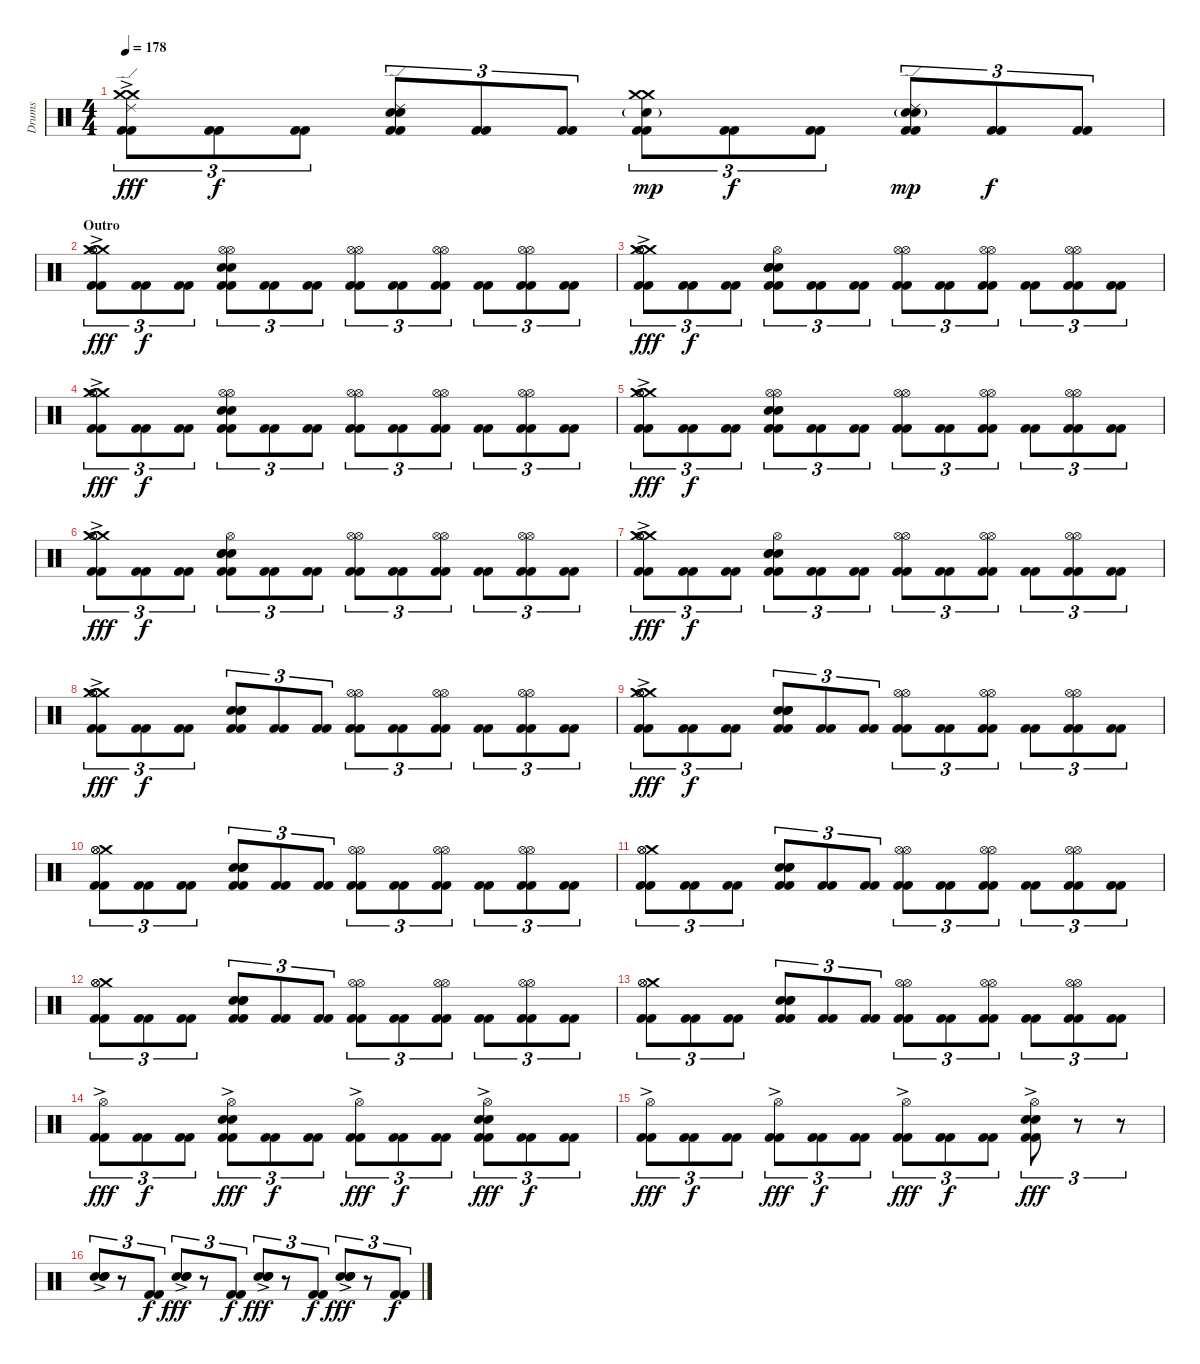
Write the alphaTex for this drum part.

\track ("Drums" "Drums") {instrument percussion}
\staff {score}
\articulation defaults
\ts (4 4)
\tempo 178
\clef neutral
\ks c
("Crash medium (hit)"{ac} "Crash medium (hit)"{ac} "Ride (edge) 2" "Kick (hit) 2" "Kick (hit) 2").8{tu (3 2) dy fff} ("Kick (hit) 2" "Kick (hit) 2").8{tu (3 2) dy f} ("Kick (hit) 2" "Kick (hit) 2").8{tu (3 2)} ("Ride (edge) 2" "Electric Snare (hit)" "Snare (hit) 2" "Kick (hit) 2" "Kick (hit) 2").8{tu (3 2)} ("Kick (hit) 2" "Kick (hit) 2").8{tu (3 2)} ("Kick (hit) 2" "Kick (hit) 2").8{tu (3 2)} ("Crash medium (hit)" "Crash medium (hit)" "Snare (hit) 2"{g} "Kick (hit) 2" "Kick (hit) 2").8{tu (3 2) dy mp} ("Kick (hit) 2" "Kick (hit) 2").8{tu (3 2) dy f} ("Kick (hit) 2" "Kick (hit) 2").8{tu (3 2)} ("Electric Snare (hit)" "Ride (edge) 2" "Snare (hit) 2"{g} "Kick (hit) 2" "Kick (hit) 2").8{tu (3 2) dy mp} ("Kick (hit) 2" "Kick (hit) 2").8{tu (3 2) dy f} ("Kick (hit) 2" "Kick (hit) 2").8{tu (3 2)} |
\section ("" "Outro")
("Crash medium (hit)"{ac} "Crash medium (hit)"{ac} "Hi-Hat (open)" "Hi-Hat (open)" "Kick (hit) 2" "Kick (hit) 2").8{tu (3 2) dy fff} ("Kick (hit) 2" "Kick (hit) 2").8{tu (3 2) dy f} ("Kick (hit) 2" "Kick (hit) 2").8{tu (3 2)} ("Electric Snare (hit)" "Hi-Hat (open)" "Hi-Hat (open)" "Electric Snare (hit)" "Kick (hit) 2" "Kick (hit) 2").8{tu (3 2)} ("Kick (hit) 2" "Kick (hit) 2").8{tu (3 2)} ("Kick (hit) 2" "Kick (hit) 2").8{tu (3 2)} ("Hi-Hat (open)"{pm} "Hi-Hat (open)"{pm} "Kick (hit) 2" "Kick (hit) 2").8{tu (3 2)} ("Kick (hit) 2" "Kick (hit) 2").8{tu (3 2)} ("Hi-Hat (open)"{pm} "Hi-Hat (open)"{pm} "Kick (hit) 2" "Kick (hit) 2").8{tu (3 2)} ("Kick (hit) 2" "Kick (hit) 2").8{tu (3 2)} ("Hi-Hat (open)"{pm} "Hi-Hat (open)"{pm} "Kick (hit) 2" "Kick (hit) 2").8{tu (3 2)} ("Kick (hit) 2" "Kick (hit) 2").8{tu (3 2)} |
("Crash medium (hit)"{ac} "Crash medium (hit)"{ac} "Hi-Hat (open)" "Hi-Hat (open)" "Kick (hit) 2" "Kick (hit) 2").8{tu (3 2) dy fff} ("Kick (hit) 2" "Kick (hit) 2").8{tu (3 2) dy f} ("Kick (hit) 2" "Kick (hit) 2").8{tu (3 2)} ("Electric Snare (hit)" "Hi-Hat (open)" "Electric Snare (hit)" "Snare (hit) 2" "Kick (hit) 2" "Kick (hit) 2").8{tu (3 2)} ("Kick (hit) 2" "Kick (hit) 2").8{tu (3 2)} ("Kick (hit) 2" "Kick (hit) 2").8{tu (3 2)} ("Hi-Hat (open)"{pm} "Hi-Hat (open)"{pm} "Kick (hit) 2" "Kick (hit) 2").8{tu (3 2)} ("Kick (hit) 2" "Kick (hit) 2").8{tu (3 2)} ("Hi-Hat (open)"{pm} "Hi-Hat (open)"{pm} "Kick (hit) 2" "Kick (hit) 2").8{tu (3 2)} ("Kick (hit) 2" "Kick (hit) 2").8{tu (3 2)} ("Hi-Hat (open)"{pm} "Hi-Hat (open)"{pm} "Kick (hit) 2" "Kick (hit) 2").8{tu (3 2)} ("Kick (hit) 2" "Kick (hit) 2").8{tu (3 2)} |
("Crash medium (hit)"{ac} "Crash medium (hit)"{ac} "Hi-Hat (open)" "Hi-Hat (open)" "Kick (hit) 2" "Kick (hit) 2").8{tu (3 2) dy fff} ("Kick (hit) 2" "Kick (hit) 2").8{tu (3 2) dy f} ("Kick (hit) 2" "Kick (hit) 2").8{tu (3 2)} ("Electric Snare (hit)" "Hi-Hat (open)" "Hi-Hat (open)" "Electric Snare (hit)" "Kick (hit) 2" "Kick (hit) 2").8{tu (3 2)} ("Kick (hit) 2" "Kick (hit) 2").8{tu (3 2)} ("Kick (hit) 2" "Kick (hit) 2").8{tu (3 2)} ("Hi-Hat (open)"{pm} "Hi-Hat (open)"{pm} "Kick (hit) 2" "Kick (hit) 2").8{tu (3 2)} ("Kick (hit) 2" "Kick (hit) 2").8{tu (3 2)} ("Hi-Hat (open)"{pm} "Hi-Hat (open)"{pm} "Kick (hit) 2" "Kick (hit) 2").8{tu (3 2)} ("Kick (hit) 2" "Kick (hit) 2").8{tu (3 2)} ("Hi-Hat (open)"{pm} "Hi-Hat (open)"{pm} "Kick (hit) 2" "Kick (hit) 2").8{tu (3 2)} ("Kick (hit) 2" "Kick (hit) 2").8{tu (3 2)} |
("Crash medium (hit)"{ac} "Crash medium (hit)"{ac} "Hi-Hat (open)" "Hi-Hat (open)" "Kick (hit) 2" "Kick (hit) 2").8{tu (3 2) dy fff} ("Kick (hit) 2" "Kick (hit) 2").8{tu (3 2) dy f} ("Kick (hit) 2" "Kick (hit) 2").8{tu (3 2)} ("Electric Snare (hit)" "Hi-Hat (open)" "Hi-Hat (open)" "Electric Snare (hit)" "Kick (hit) 2" "Kick (hit) 2").8{tu (3 2)} ("Kick (hit) 2" "Kick (hit) 2").8{tu (3 2)} ("Kick (hit) 2" "Kick (hit) 2").8{tu (3 2)} ("Hi-Hat (open)"{pm} "Hi-Hat (open)"{pm} "Kick (hit) 2" "Kick (hit) 2").8{tu (3 2)} ("Kick (hit) 2" "Kick (hit) 2").8{tu (3 2)} ("Hi-Hat (open)"{pm} "Hi-Hat (open)"{pm} "Kick (hit) 2" "Kick (hit) 2").8{tu (3 2)} ("Kick (hit) 2" "Kick (hit) 2").8{tu (3 2)} ("Hi-Hat (open)"{pm} "Hi-Hat (open)"{pm} "Kick (hit) 2" "Kick (hit) 2").8{tu (3 2)} ("Kick (hit) 2" "Kick (hit) 2").8{tu (3 2)} |
("Crash medium (hit)"{ac} "Crash medium (hit)"{ac} "Hi-Hat (open)" "Hi-Hat (open)" "Kick (hit) 2" "Kick (hit) 2").8{tu (3 2) dy fff} ("Kick (hit) 2" "Kick (hit) 2").8{tu (3 2) dy f} ("Kick (hit) 2" "Kick (hit) 2").8{tu (3 2)} ("Electric Snare (hit)" "Hi-Hat (open)" "Electric Snare (hit)" "Snare (hit) 2" "Kick (hit) 2" "Kick (hit) 2").8{tu (3 2)} ("Kick (hit) 2" "Kick (hit) 2").8{tu (3 2)} ("Kick (hit) 2" "Kick (hit) 2").8{tu (3 2)} ("Hi-Hat (open)"{pm} "Hi-Hat (open)"{pm} "Kick (hit) 2" "Kick (hit) 2").8{tu (3 2)} ("Kick (hit) 2" "Kick (hit) 2").8{tu (3 2)} ("Hi-Hat (open)"{pm} "Hi-Hat (open)"{pm} "Kick (hit) 2" "Kick (hit) 2").8{tu (3 2)} ("Kick (hit) 2" "Kick (hit) 2").8{tu (3 2)} ("Hi-Hat (open)"{pm} "Hi-Hat (open)"{pm} "Kick (hit) 2" "Kick (hit) 2").8{tu (3 2)} ("Kick (hit) 2" "Kick (hit) 2").8{tu (3 2)} |
("Crash medium (hit)"{ac} "Crash medium (hit)"{ac} "Hi-Hat (open)" "Hi-Hat (open)" "Kick (hit) 2" "Kick (hit) 2").8{tu (3 2) dy fff} ("Kick (hit) 2" "Kick (hit) 2").8{tu (3 2) dy f} ("Kick (hit) 2" "Kick (hit) 2").8{tu (3 2)} ("Electric Snare (hit)" "Hi-Hat (open)" "Electric Snare (hit)" "Snare (hit) 2" "Kick (hit) 2" "Kick (hit) 2").8{tu (3 2)} ("Kick (hit) 2" "Kick (hit) 2").8{tu (3 2)} ("Kick (hit) 2" "Kick (hit) 2").8{tu (3 2)} ("Hi-Hat (open)"{pm} "Hi-Hat (open)"{pm} "Kick (hit) 2" "Kick (hit) 2").8{tu (3 2)} ("Kick (hit) 2" "Kick (hit) 2").8{tu (3 2)} ("Hi-Hat (open)"{pm} "Hi-Hat (open)"{pm} "Kick (hit) 2" "Kick (hit) 2").8{tu (3 2)} ("Kick (hit) 2" "Kick (hit) 2").8{tu (3 2)} ("Hi-Hat (open)"{pm} "Hi-Hat (open)"{pm} "Kick (hit) 2" "Kick (hit) 2").8{tu (3 2)} ("Kick (hit) 2" "Kick (hit) 2").8{tu (3 2)} |
("Crash medium (hit)"{ac} "Crash medium (hit)"{ac} "Hi-Hat (open)" "Hi-Hat (open)" "Kick (hit) 2" "Kick (hit) 2").8{tu (3 2) dy fff} ("Kick (hit) 2" "Kick (hit) 2").8{tu (3 2) dy f} ("Kick (hit) 2" "Kick (hit) 2").8{tu (3 2)} ("Electric Snare (hit)" "Electric Snare (hit)" "Snare (hit) 2" "Kick (hit) 2" "Kick (hit) 2").8{tu (3 2)} ("Kick (hit) 2" "Kick (hit) 2").8{tu (3 2)} ("Kick (hit) 2" "Kick (hit) 2").8{tu (3 2)} ("Hi-Hat (open)"{pm} "Hi-Hat (open)"{pm} "Kick (hit) 2" "Kick (hit) 2").8{tu (3 2)} ("Kick (hit) 2" "Kick (hit) 2").8{tu (3 2)} ("Hi-Hat (open)"{pm} "Hi-Hat (open)"{pm} "Kick (hit) 2" "Kick (hit) 2").8{tu (3 2)} ("Kick (hit) 2" "Kick (hit) 2").8{tu (3 2)} ("Hi-Hat (open)"{pm} "Hi-Hat (open)"{pm} "Kick (hit) 2" "Kick (hit) 2").8{tu (3 2)} ("Kick (hit) 2" "Kick (hit) 2").8{tu (3 2)} |
("Crash medium (hit)"{ac} "Crash medium (hit)"{ac} "Hi-Hat (open)" "Hi-Hat (open)" "Kick (hit) 2" "Kick (hit) 2").8{tu (3 2) dy fff} ("Kick (hit) 2" "Kick (hit) 2").8{tu (3 2) dy f} ("Kick (hit) 2" "Kick (hit) 2").8{tu (3 2)} ("Electric Snare (hit)" "Electric Snare (hit)" "Snare (hit) 2" "Kick (hit) 2" "Kick (hit) 2").8{tu (3 2)} ("Kick (hit) 2" "Kick (hit) 2").8{tu (3 2)} ("Kick (hit) 2" "Kick (hit) 2").8{tu (3 2)} ("Hi-Hat (open)"{pm} "Hi-Hat (open)"{pm} "Kick (hit) 2" "Kick (hit) 2").8{tu (3 2)} ("Kick (hit) 2" "Kick (hit) 2").8{tu (3 2)} ("Hi-Hat (open)"{pm} "Hi-Hat (open)"{pm} "Kick (hit) 2" "Kick (hit) 2").8{tu (3 2)} ("Kick (hit) 2" "Kick (hit) 2").8{tu (3 2)} ("Hi-Hat (open)"{pm} "Hi-Hat (open)"{pm} "Kick (hit) 2" "Kick (hit) 2").8{tu (3 2)} ("Kick (hit) 2" "Kick (hit) 2").8{tu (3 2)} |
("Crash medium (hit)" "Hi-Hat (open)" "Hi-Hat (open)" "Kick (hit) 2" "Kick (hit) 2").8{tu (3 2)} ("Kick (hit) 2" "Kick (hit) 2").8{tu (3 2)} ("Kick (hit) 2" "Kick (hit) 2").8{tu (3 2)} ("Electric Snare (hit)" "Electric Snare (hit)" "Snare (hit) 2" "Kick (hit) 2" "Kick (hit) 2").8{tu (3 2)} ("Kick (hit) 2" "Kick (hit) 2").8{tu (3 2)} ("Kick (hit) 2" "Kick (hit) 2").8{tu (3 2)} ("Hi-Hat (open)"{pm} "Hi-Hat (open)"{pm} "Kick (hit) 2" "Kick (hit) 2").8{tu (3 2)} ("Kick (hit) 2" "Kick (hit) 2").8{tu (3 2)} ("Hi-Hat (open)"{pm} "Hi-Hat (open)"{pm} "Kick (hit) 2" "Kick (hit) 2").8{tu (3 2)} ("Kick (hit) 2" "Kick (hit) 2").8{tu (3 2)} ("Hi-Hat (open)"{pm} "Hi-Hat (open)"{pm} "Kick (hit) 2" "Kick (hit) 2").8{tu (3 2)} ("Kick (hit) 2" "Kick (hit) 2").8{tu (3 2)} |
("Crash medium (hit)" "Hi-Hat (open)" "Hi-Hat (open)" "Kick (hit) 2" "Kick (hit) 2").8{tu (3 2)} ("Kick (hit) 2" "Kick (hit) 2").8{tu (3 2)} ("Kick (hit) 2" "Kick (hit) 2").8{tu (3 2)} ("Electric Snare (hit)" "Electric Snare (hit)" "Snare (hit) 2" "Kick (hit) 2" "Kick (hit) 2").8{tu (3 2)} ("Kick (hit) 2" "Kick (hit) 2").8{tu (3 2)} ("Kick (hit) 2" "Kick (hit) 2").8{tu (3 2)} ("Hi-Hat (open)"{pm} "Hi-Hat (open)"{pm} "Kick (hit) 2" "Kick (hit) 2").8{tu (3 2)} ("Kick (hit) 2" "Kick (hit) 2").8{tu (3 2)} ("Hi-Hat (open)"{pm} "Hi-Hat (open)"{pm} "Kick (hit) 2" "Kick (hit) 2").8{tu (3 2)} ("Kick (hit) 2" "Kick (hit) 2").8{tu (3 2)} ("Hi-Hat (open)"{pm} "Hi-Hat (open)"{pm} "Kick (hit) 2" "Kick (hit) 2").8{tu (3 2)} ("Kick (hit) 2" "Kick (hit) 2").8{tu (3 2)} |
("Crash medium (hit)" "Hi-Hat (open)" "Hi-Hat (open)" "Kick (hit) 2" "Kick (hit) 2").8{tu (3 2)} ("Kick (hit) 2" "Kick (hit) 2").8{tu (3 2)} ("Kick (hit) 2" "Kick (hit) 2").8{tu (3 2)} ("Electric Snare (hit)" "Electric Snare (hit)" "Snare (hit) 2" "Kick (hit) 2" "Kick (hit) 2").8{tu (3 2)} ("Kick (hit) 2" "Kick (hit) 2").8{tu (3 2)} ("Kick (hit) 2" "Kick (hit) 2").8{tu (3 2)} ("Hi-Hat (open)"{pm} "Hi-Hat (open)"{pm} "Kick (hit) 2" "Kick (hit) 2").8{tu (3 2)} ("Kick (hit) 2" "Kick (hit) 2").8{tu (3 2)} ("Hi-Hat (open)"{pm} "Hi-Hat (open)"{pm} "Kick (hit) 2" "Kick (hit) 2").8{tu (3 2)} ("Kick (hit) 2" "Kick (hit) 2").8{tu (3 2)} ("Hi-Hat (open)"{pm} "Hi-Hat (open)"{pm} "Kick (hit) 2" "Kick (hit) 2").8{tu (3 2)} ("Kick (hit) 2" "Kick (hit) 2").8{tu (3 2)} |
("Crash medium (hit)" "Hi-Hat (open)" "Hi-Hat (open)" "Kick (hit) 2" "Kick (hit) 2").8{tu (3 2)} ("Kick (hit) 2" "Kick (hit) 2").8{tu (3 2)} ("Kick (hit) 2" "Kick (hit) 2").8{tu (3 2)} ("Electric Snare (hit)" "Electric Snare (hit)" "Snare (hit) 2" "Kick (hit) 2" "Kick (hit) 2").8{tu (3 2)} ("Kick (hit) 2" "Kick (hit) 2").8{tu (3 2)} ("Kick (hit) 2" "Kick (hit) 2").8{tu (3 2)} ("Hi-Hat (open)"{pm} "Hi-Hat (open)"{pm} "Kick (hit) 2" "Kick (hit) 2").8{tu (3 2)} ("Kick (hit) 2" "Kick (hit) 2").8{tu (3 2)} ("Hi-Hat (open)"{pm} "Hi-Hat (open)"{pm} "Kick (hit) 2" "Kick (hit) 2").8{tu (3 2)} ("Kick (hit) 2" "Kick (hit) 2").8{tu (3 2)} ("Hi-Hat (open)"{pm} "Hi-Hat (open)"{pm} "Kick (hit) 2" "Kick (hit) 2").8{tu (3 2)} ("Kick (hit) 2" "Kick (hit) 2").8{tu (3 2)} |
("Hi-Hat (open)"{ac} "Kick (hit) 2" "Kick (hit) 2").8{tu (3 2) dy fff} ("Kick (hit) 2" "Kick (hit) 2").8{tu (3 2) dy f} ("Kick (hit) 2" "Kick (hit) 2").8{tu (3 2)} ("Snare (hit) 2" "Electric Snare (hit)" "Hi-Hat (open)"{ac} "Kick (hit) 2" "Kick (hit) 2").8{tu (3 2) dy fff} ("Kick (hit) 2" "Kick (hit) 2").8{tu (3 2) dy f} ("Kick (hit) 2" "Kick (hit) 2").8{tu (3 2)} ("Hi-Hat (open)"{ac} "Kick (hit) 2" "Kick (hit) 2").8{tu (3 2) dy fff} ("Kick (hit) 2" "Kick (hit) 2").8{tu (3 2) dy f} ("Kick (hit) 2" "Kick (hit) 2").8{tu (3 2)} ("Snare (hit) 2" "Electric Snare (hit)" "Hi-Hat (open)"{ac} "Kick (hit) 2" "Kick (hit) 2").8{tu (3 2) dy fff} ("Kick (hit) 2" "Kick (hit) 2").8{tu (3 2) dy f} ("Kick (hit) 2" "Kick (hit) 2").8{tu (3 2)} |
("Hi-Hat (open)"{ac} "Kick (hit) 2" "Kick (hit) 2").8{tu (3 2) dy fff} ("Kick (hit) 2" "Kick (hit) 2").8{tu (3 2) dy f} ("Kick (hit) 2" "Kick (hit) 2").8{tu (3 2)} ("Hi-Hat (open)"{ac} "Kick (hit) 2" "Kick (hit) 2").8{tu (3 2) dy fff} ("Kick (hit) 2" "Kick (hit) 2").8{tu (3 2) dy f} ("Kick (hit) 2" "Kick (hit) 2").8{tu (3 2)} ("Hi-Hat (open)"{ac} "Kick (hit) 2" "Kick (hit) 2").8{tu (3 2) dy fff} ("Kick (hit) 2" "Kick (hit) 2").8{tu (3 2) dy f} ("Kick (hit) 2" "Kick (hit) 2").8{tu (3 2)} ("Snare (hit) 2" "Electric Snare (hit)" "Hi-Hat (open)"{ac} "Kick (hit) 2" "Kick (hit) 2").8{tu (3 2) dy fff} r.8{tu (3 2)} r.8{tu (3 2)} |
("Snare (hit) 2"{ac} "Electric Snare (hit)" "Electric Snare (hit)"{ac}).8{tu (3 2)} r.8{tu (3 2)} ("Kick (hit) 2" "Kick (hit) 2").8{tu (3 2) dy f} ("Snare (hit) 2"{ac} "Electric Snare (hit)" "Electric Snare (hit)"{ac}).8{tu (3 2) dy fff} r.8{tu (3 2)} ("Kick (hit) 2" "Kick (hit) 2").8{tu (3 2) dy f} ("Snare (hit) 2"{ac} "Electric Snare (hit)" "Electric Snare (hit)"{ac}).8{tu (3 2) dy fff} r.8{tu (3 2)} ("Kick (hit) 2" "Kick (hit) 2").8{tu (3 2) dy f} ("Snare (hit) 2"{ac} "Electric Snare (hit)" "Electric Snare (hit)"{ac}).8{tu (3 2) dy fff} r.8{tu (3 2)} ("Kick (hit) 2" "Kick (hit) 2").8{tu (3 2) dy f}
